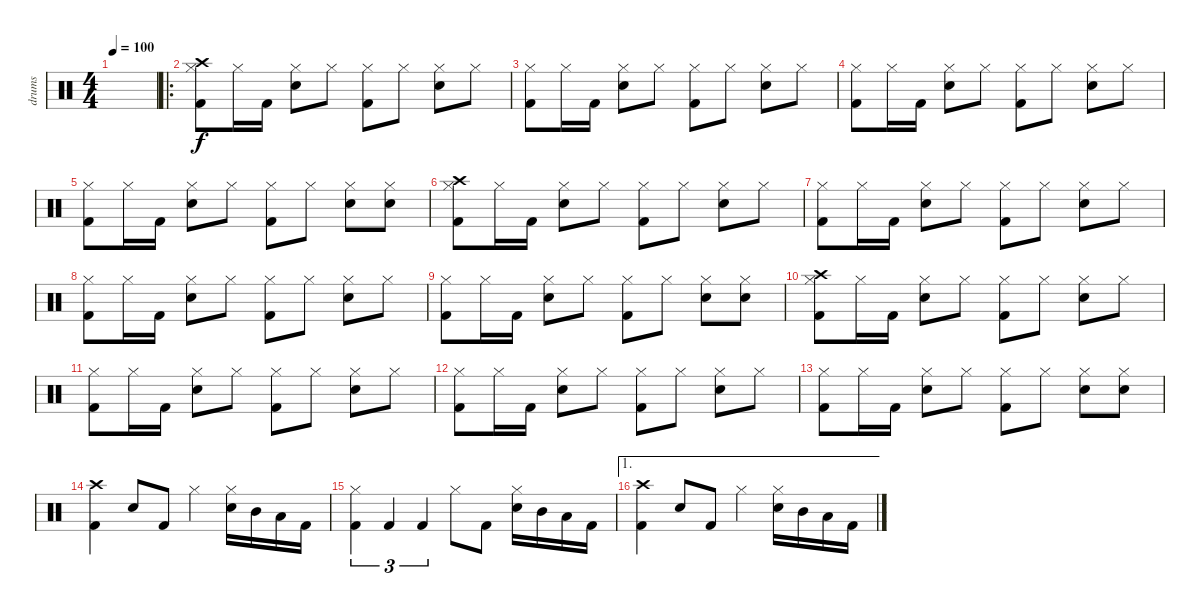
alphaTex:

\track ("drums" "drums") {instrument percussion}
\staff {score}
\articulation defaults
\ts (4 4)
\tempo 100
\clef neutral
\ks c
|
\ro
("Crash high (hit)" "Hi-Hat (closed)" "Kick (hit) 2").8 "Hi-Hat (closed)".16 "Kick (hit) 2".16 ("Hi-Hat (closed)" "Snare (hit) 2").8 "Hi-Hat (closed)".8 ("Hi-Hat (closed)" "Kick (hit) 2").8 "Hi-Hat (closed)".8 ("Hi-Hat (closed)" "Snare (hit) 2").8 "Hi-Hat (closed)".8 |
("Hi-Hat (closed)" "Kick (hit) 2").8 "Hi-Hat (closed)".16 "Kick (hit) 2".16 ("Hi-Hat (closed)" "Snare (hit) 2").8 "Hi-Hat (closed)".8 ("Hi-Hat (closed)" "Kick (hit) 2").8 "Hi-Hat (closed)".8 ("Hi-Hat (closed)" "Snare (hit) 2").8 "Hi-Hat (closed)".8 |
("Hi-Hat (closed)" "Kick (hit) 2").8 "Hi-Hat (closed)".16 "Kick (hit) 2".16 ("Hi-Hat (closed)" "Snare (hit) 2").8 "Hi-Hat (closed)".8 ("Hi-Hat (closed)" "Kick (hit) 2").8 "Hi-Hat (closed)".8 ("Hi-Hat (closed)" "Snare (hit) 2").8 "Hi-Hat (closed)".8 |
("Hi-Hat (closed)" "Kick (hit) 2").8 "Hi-Hat (closed)".16 "Kick (hit) 2".16 ("Hi-Hat (closed)" "Snare (hit) 2").8 "Hi-Hat (closed)".8 ("Hi-Hat (closed)" "Kick (hit) 2").8 "Hi-Hat (closed)".8 ("Hi-Hat (closed)" "Snare (hit) 2").8 ("Hi-Hat (closed)" "Electric Snare (hit)").8 |
("Crash high (hit)" "Hi-Hat (closed)" "Kick (hit) 2").8 "Hi-Hat (closed)".16 "Kick (hit) 2".16 ("Hi-Hat (closed)" "Snare (hit) 2").8 "Hi-Hat (closed)".8 ("Hi-Hat (closed)" "Kick (hit) 2").8 "Hi-Hat (closed)".8 ("Hi-Hat (closed)" "Snare (hit) 2").8 "Hi-Hat (closed)".8 |
("Hi-Hat (closed)" "Kick (hit) 2").8 "Hi-Hat (closed)".16 "Kick (hit) 2".16 ("Hi-Hat (closed)" "Snare (hit) 2").8 "Hi-Hat (closed)".8 ("Hi-Hat (closed)" "Kick (hit) 2").8 "Hi-Hat (closed)".8 ("Hi-Hat (closed)" "Snare (hit) 2").8 "Hi-Hat (closed)".8 |
("Hi-Hat (closed)" "Kick (hit) 2").8 "Hi-Hat (closed)".16 "Kick (hit) 2".16 ("Hi-Hat (closed)" "Snare (hit) 2").8 "Hi-Hat (closed)".8 ("Hi-Hat (closed)" "Kick (hit) 2").8 "Hi-Hat (closed)".8 ("Hi-Hat (closed)" "Snare (hit) 2").8 "Hi-Hat (closed)".8 |
("Hi-Hat (closed)" "Kick (hit) 2").8 "Hi-Hat (closed)".16 "Kick (hit) 2".16 ("Hi-Hat (closed)" "Snare (hit) 2").8 "Hi-Hat (closed)".8 ("Hi-Hat (closed)" "Kick (hit) 2").8 "Hi-Hat (closed)".8 ("Hi-Hat (closed)" "Snare (hit) 2").8 ("Hi-Hat (closed)" "Electric Snare (hit)").8 |
("Crash high (hit)" "Hi-Hat (closed)" "Kick (hit) 2").8 "Hi-Hat (closed)".16 "Kick (hit) 2".16 ("Hi-Hat (closed)" "Snare (hit) 2").8 "Hi-Hat (closed)".8 ("Hi-Hat (closed)" "Kick (hit) 2").8 "Hi-Hat (closed)".8 ("Hi-Hat (closed)" "Snare (hit) 2").8 "Hi-Hat (closed)".8 |
("Hi-Hat (closed)" "Kick (hit) 2").8 "Hi-Hat (closed)".16 "Kick (hit) 2".16 ("Hi-Hat (closed)" "Snare (hit) 2").8 "Hi-Hat (closed)".8 ("Hi-Hat (closed)" "Kick (hit) 2").8 "Hi-Hat (closed)".8 ("Hi-Hat (closed)" "Snare (hit) 2").8 "Hi-Hat (closed)".8 |
("Hi-Hat (closed)" "Kick (hit) 2").8 "Hi-Hat (closed)".16 "Kick (hit) 2".16 ("Hi-Hat (closed)" "Snare (hit) 2").8 "Hi-Hat (closed)".8 ("Hi-Hat (closed)" "Kick (hit) 2").8 "Hi-Hat (closed)".8 ("Hi-Hat (closed)" "Snare (hit) 2").8 "Hi-Hat (closed)".8 |
("Hi-Hat (closed)" "Kick (hit) 2").8 "Hi-Hat (closed)".16 "Kick (hit) 2".16 ("Hi-Hat (closed)" "Snare (hit) 2").8 "Hi-Hat (closed)".8 ("Hi-Hat (closed)" "Kick (hit) 2").8 "Hi-Hat (closed)".8 ("Hi-Hat (closed)" "Snare (hit) 2").8 ("Hi-Hat (closed)" "Electric Snare (hit)").8 |
("Crash high (hit)" "Kick (hit) 2").4 "Snare (hit) 2".8 "Kick (hit) 2".8 "Hi-Hat (closed)".4 ("Hi-Hat (closed)" "Snare (hit) 2").16 "Mid Tom (hit)".16 "Low Tom (hit)".16 "Kick (hit) 2".16 |
("Hi-Hat (closed)" "Kick (hit) 2").4{tu (3 2)} "Kick (hit) 2".4{tu (3 2)} "Kick (hit) 2".4{tu (3 2)} "Hi-Hat (closed)".8 "Kick (hit) 2".8 ("Hi-Hat (closed)" "Snare (hit) 2").16 "Mid Tom (hit)".16 "Low Tom (hit)".16 "Kick (hit) 2".16 |
\ae 1
("Crash high (hit)" "Kick (hit) 2").4 "Snare (hit) 2".8 "Kick (hit) 2".8 "Hi-Hat (closed)".4 ("Hi-Hat (closed)" "Snare (hit) 2").16 "Mid Tom (hit)".16 "Low Tom (hit)".16 "Kick (hit) 2".16
